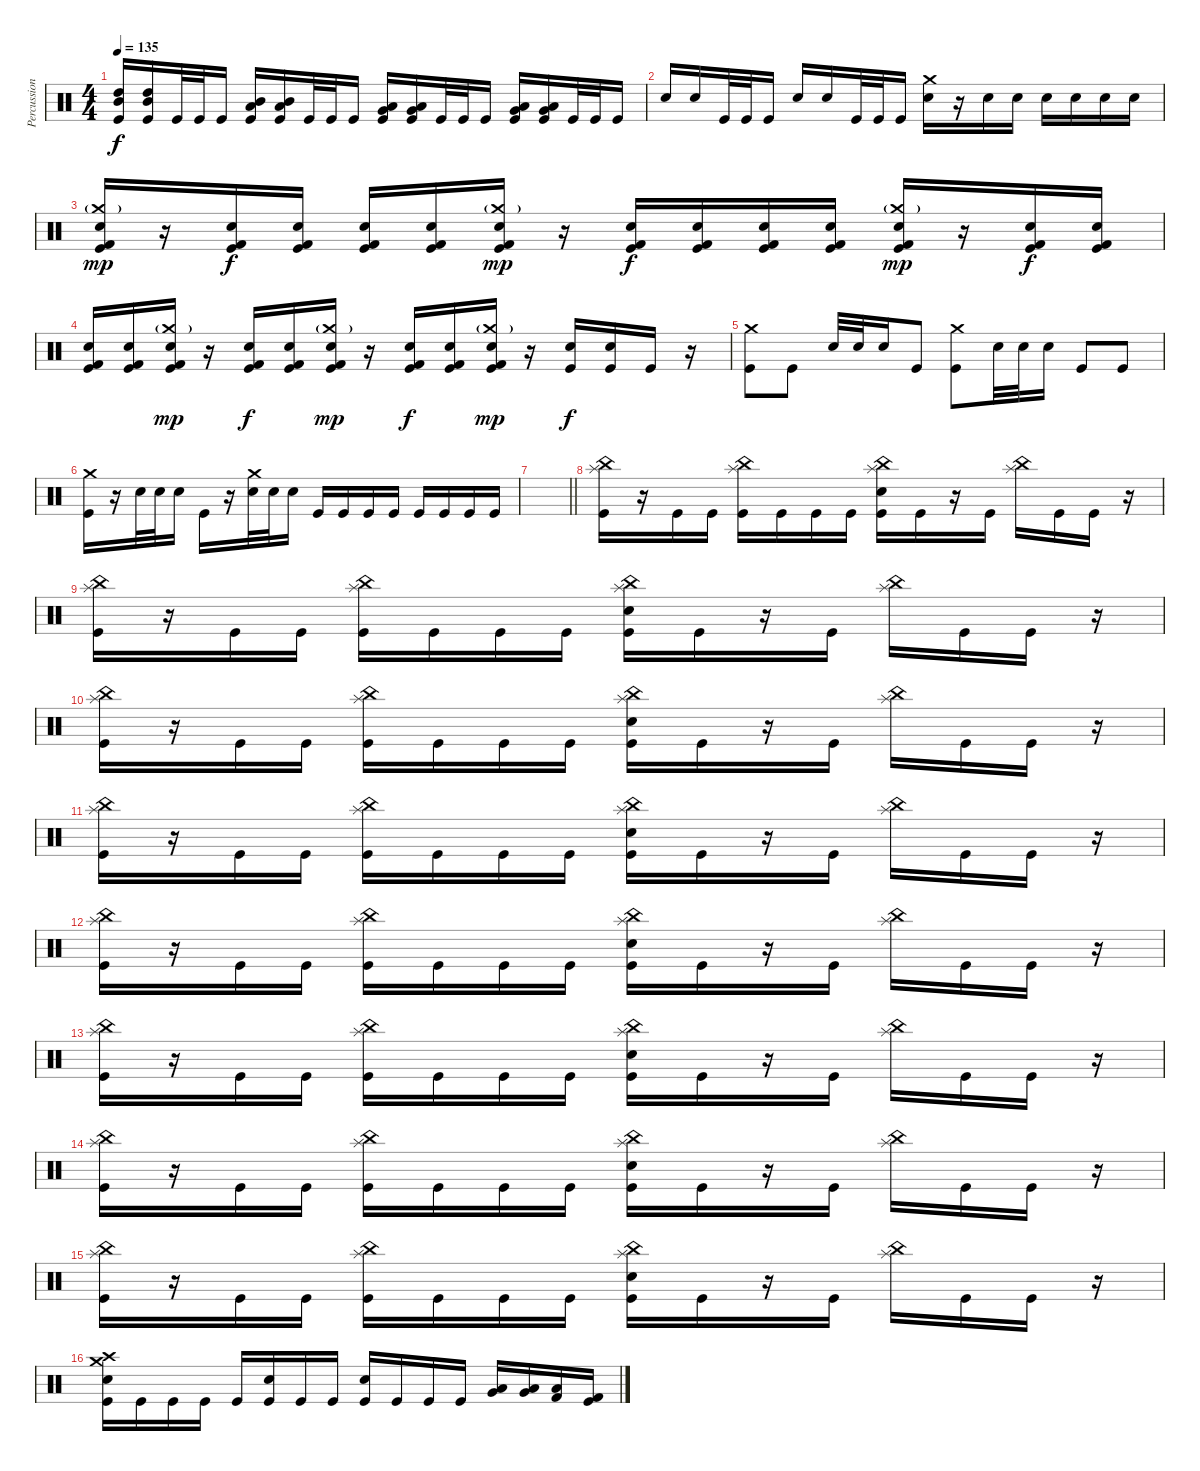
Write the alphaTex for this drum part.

\track ("Percussion (Approx.)" "Percussion") {instrument percussion}
\staff {score}
\articulation defaults
\ts (4 4)
\tempo 135
\clef neutral
\ks c
("Kick (hit)" "High Tom (hit)" "Mid Tom (hit)").16{dy f} ("Kick (hit)" "High Tom (hit)" "Mid Tom (hit)").16 "Kick (hit)".32 "Kick (hit)".32 "Kick (hit)".16 ("Kick (hit)" "Mid Tom (hit)" "Low Tom (hit)").16 ("Kick (hit)" "Mid Tom (hit)" "Low Tom (hit)").16 "Kick (hit)".32 "Kick (hit)".32 "Kick (hit)".16 ("Kick (hit)" "Low Tom (hit)" "Very Low Tom (hit)").16 ("Kick (hit)" "Low Tom (hit)" "Very Low Tom (hit)").16 "Kick (hit)".32 "Kick (hit)".32 "Kick (hit)".16 ("Kick (hit)" "Very Low Tom (hit)" "Low Floor Tom (hit)").16 ("Kick (hit)" "Very Low Tom (hit)" "Low Floor Tom (hit)").16 "Kick (hit)".32 "Kick (hit)".32 "Kick (hit)".16 |
"Electric Snare (hit)".16 "Electric Snare (hit)".16 "Kick (hit)".32 "Kick (hit)".32 "Kick (hit)".16 "Electric Snare (hit)".16 "Electric Snare (hit)".16 "Kick (hit)".32 "Kick (hit)".32 "Kick (hit)".16 ("Crash medium (hit)" "Electric Snare (hit)").16 r.16 "Electric Snare (hit)".16 "Electric Snare (hit)".16 "Electric Snare (hit)".16 "Electric Snare (hit)".16 "Electric Snare (hit)".16 "Electric Snare (hit)".16 |
("Crash medium (hit)"{g} "Kick (hit) 2" "Electric Snare (hit)" "Kick (hit)").16{dy mp} r.16 ("Kick (hit) 2" "Electric Snare (hit)" "Kick (hit)").16{dy f} ("Kick (hit) 2" "Electric Snare (hit)" "Kick (hit)").16 ("Kick (hit) 2" "Electric Snare (hit)" "Kick (hit)").16 ("Kick (hit) 2" "Electric Snare (hit)" "Kick (hit)").16 ("Crash medium (hit)"{g} "Kick (hit) 2" "Electric Snare (hit)" "Kick (hit)").16{dy mp} r.16 ("Kick (hit) 2" "Electric Snare (hit)" "Kick (hit)").16{dy f} ("Kick (hit) 2" "Electric Snare (hit)" "Kick (hit)").16 ("Kick (hit) 2" "Electric Snare (hit)" "Kick (hit)").16 ("Kick (hit) 2" "Electric Snare (hit)" "Kick (hit)").16 ("Crash medium (hit)"{g} "Kick (hit) 2" "Electric Snare (hit)" "Kick (hit)").16{dy mp} r.16 ("Kick (hit) 2" "Electric Snare (hit)" "Kick (hit)").16{dy f} ("Kick (hit) 2" "Electric Snare (hit)" "Kick (hit)").16 |
("Kick (hit) 2" "Electric Snare (hit)" "Kick (hit)").16 ("Kick (hit) 2" "Electric Snare (hit)" "Kick (hit)").16 ("Crash medium (hit)"{g} "Kick (hit) 2" "Electric Snare (hit)" "Kick (hit)").16{dy mp} r.16 ("Kick (hit) 2" "Electric Snare (hit)" "Kick (hit)").16{dy f} ("Kick (hit) 2" "Electric Snare (hit)" "Kick (hit)").16 ("Crash medium (hit)"{g} "Kick (hit) 2" "Electric Snare (hit)" "Kick (hit)").16{dy mp} r.16 ("Kick (hit) 2" "Electric Snare (hit)" "Kick (hit)").16{dy f} ("Kick (hit) 2" "Electric Snare (hit)" "Kick (hit)").16 ("Crash medium (hit)"{g} "Kick (hit) 2" "Electric Snare (hit)" "Kick (hit)").16{dy mp} r.16 ("Electric Snare (hit)" "Kick (hit)").16{dy f} ("Electric Snare (hit)" "Kick (hit)").16 "Kick (hit)".16 r.16 |
("Crash medium (hit)" "Kick (hit)").8 "Kick (hit)".8 "Electric Snare (hit)".32 "Electric Snare (hit)".32 "Electric Snare (hit)".16 "Kick (hit)".8 ("Crash medium (hit)" "Kick (hit)").8 "Electric Snare (hit)".32 "Electric Snare (hit)".32 "Electric Snare (hit)".16 "Kick (hit)".8 "Kick (hit)".8 |
("Crash medium (hit)" "Kick (hit)").16 r.16 "Electric Snare (hit)".32 "Electric Snare (hit)".32 "Electric Snare (hit)".16 "Kick (hit)".16 r.16 ("Crash medium (hit)" "Electric Snare (hit)").32 "Electric Snare (hit)".32 "Electric Snare (hit)".16 "Kick (hit)".16 "Kick (hit)".16 "Kick (hit)".16 "Kick (hit)".16 "Kick (hit)".16 "Kick (hit)".16 "Kick (hit)".16 "Kick (hit)".16 |
\barLineRight lightlight
|
\section ("" "")
("China (hit)" "Splash (hit)" "Kick (hit)").16 r.16 "Kick (hit)".16 "Kick (hit)".16 ("China (hit)" "Splash (hit)" "Kick (hit)").16 "Kick (hit)".16 "Kick (hit)".16 "Kick (hit)".16 ("China (hit)" "Splash (hit)" "Electric Snare (hit)" "Kick (hit)").16 "Kick (hit)".16 r.16 "Kick (hit)".16 ("China (hit)" "Splash (hit)").16 "Kick (hit)".16 "Kick (hit)".16 r.16 |
("China (hit)" "Splash (hit)" "Kick (hit)").16 r.16 "Kick (hit)".16 "Kick (hit)".16 ("China (hit)" "Splash (hit)" "Kick (hit)").16 "Kick (hit)".16 "Kick (hit)".16 "Kick (hit)".16 ("China (hit)" "Splash (hit)" "Electric Snare (hit)" "Kick (hit)").16 "Kick (hit)".16 r.16 "Kick (hit)".16 ("China (hit)" "Splash (hit)").16 "Kick (hit)".16 "Kick (hit)".16 r.16 |
("China (hit)" "Splash (hit)" "Kick (hit)").16 r.16 "Kick (hit)".16 "Kick (hit)".16 ("China (hit)" "Splash (hit)" "Kick (hit)").16 "Kick (hit)".16 "Kick (hit)".16 "Kick (hit)".16 ("China (hit)" "Splash (hit)" "Electric Snare (hit)" "Kick (hit)").16 "Kick (hit)".16 r.16 "Kick (hit)".16 ("China (hit)" "Splash (hit)").16 "Kick (hit)".16 "Kick (hit)".16 r.16 |
("China (hit)" "Splash (hit)" "Kick (hit)").16 r.16 "Kick (hit)".16 "Kick (hit)".16 ("China (hit)" "Splash (hit)" "Kick (hit)").16 "Kick (hit)".16 "Kick (hit)".16 "Kick (hit)".16 ("China (hit)" "Splash (hit)" "Electric Snare (hit)" "Kick (hit)").16 "Kick (hit)".16 r.16 "Kick (hit)".16 ("China (hit)" "Splash (hit)").16 "Kick (hit)".16 "Kick (hit)".16 r.16 |
("China (hit)" "Splash (hit)" "Kick (hit)").16 r.16 "Kick (hit)".16 "Kick (hit)".16 ("China (hit)" "Splash (hit)" "Kick (hit)").16 "Kick (hit)".16 "Kick (hit)".16 "Kick (hit)".16 ("China (hit)" "Splash (hit)" "Electric Snare (hit)" "Kick (hit)").16 "Kick (hit)".16 r.16 "Kick (hit)".16 ("China (hit)" "Splash (hit)").16 "Kick (hit)".16 "Kick (hit)".16 r.16 |
("China (hit)" "Splash (hit)" "Kick (hit)").16 r.16 "Kick (hit)".16 "Kick (hit)".16 ("China (hit)" "Splash (hit)" "Kick (hit)").16 "Kick (hit)".16 "Kick (hit)".16 "Kick (hit)".16 ("China (hit)" "Splash (hit)" "Electric Snare (hit)" "Kick (hit)").16 "Kick (hit)".16 r.16 "Kick (hit)".16 ("China (hit)" "Splash (hit)").16 "Kick (hit)".16 "Kick (hit)".16 r.16 |
("China (hit)" "Splash (hit)" "Kick (hit)").16 r.16 "Kick (hit)".16 "Kick (hit)".16 ("China (hit)" "Splash (hit)" "Kick (hit)").16 "Kick (hit)".16 "Kick (hit)".16 "Kick (hit)".16 ("China (hit)" "Splash (hit)" "Electric Snare (hit)" "Kick (hit)").16 "Kick (hit)".16 r.16 "Kick (hit)".16 ("China (hit)" "Splash (hit)").16 "Kick (hit)".16 "Kick (hit)".16 r.16 |
("China (hit)" "Splash (hit)" "Kick (hit)").16 r.16 "Kick (hit)".16 "Kick (hit)".16 ("China (hit)" "Splash (hit)" "Kick (hit)").16 "Kick (hit)".16 "Kick (hit)".16 "Kick (hit)".16 ("China (hit)" "Splash (hit)" "Electric Snare (hit)" "Kick (hit)").16 "Kick (hit)".16 r.16 "Kick (hit)".16 ("China (hit)" "Splash (hit)").16 "Kick (hit)".16 "Kick (hit)".16 r.16 |
("Crash medium (hit)" "Crash high (hit)" "Electric Snare (hit)" "Kick (hit)").16 "Kick (hit)".16 "Kick (hit)".16 "Kick (hit)".16 "Kick (hit)".16 ("Electric Snare (hit)" "Kick (hit)").16 "Kick (hit)".16 "Kick (hit)".16 ("Electric Snare (hit)" "Kick (hit)").16 "Kick (hit)".16 "Kick (hit)".16 "Kick (hit)".16 ("Very Low Tom (hit)" "Low Tom (hit)").16 ("Low Floor Tom (hit)" "Very Low Tom (hit)").16 ("Kick (hit) 2" "Low Floor Tom (hit)").16 ("Kick (hit) 2" "Kick (hit)").16
